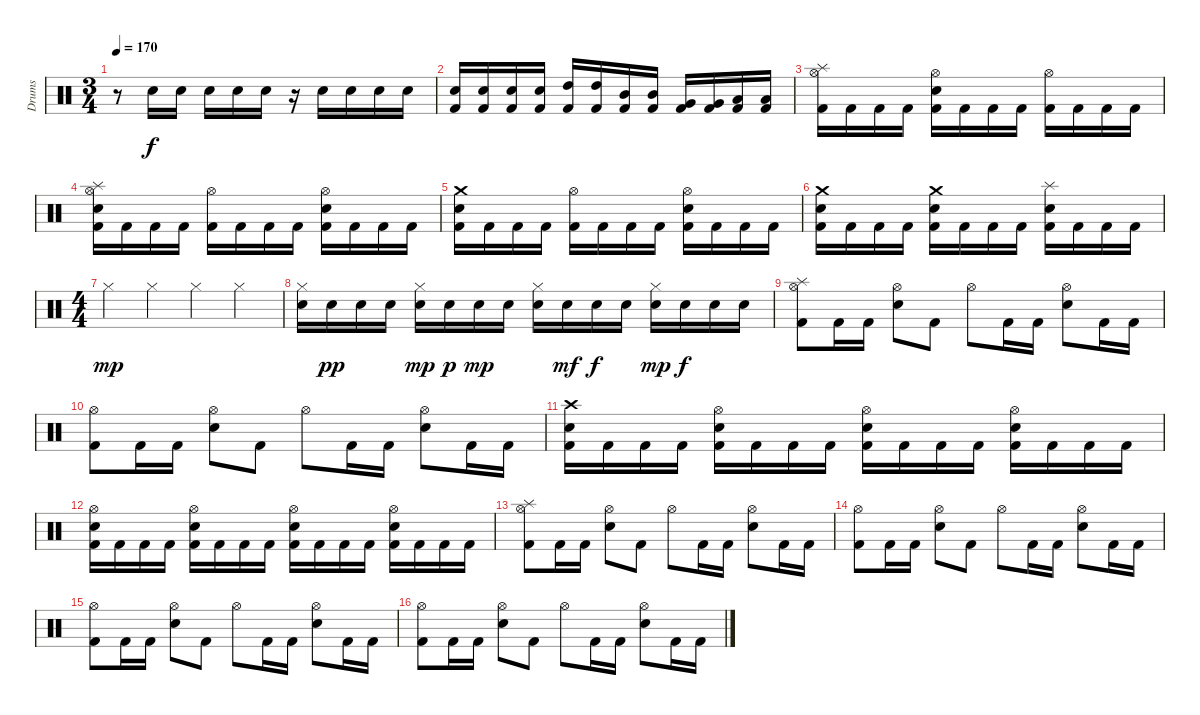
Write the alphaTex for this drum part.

\track ("Drums" "Drums") {instrument percussion}
\staff {score}
\articulation defaults
\ts (3 4)
\tempo 170
\clef neutral
\ks c
r.8{dy f} "Snare (hit) 2".16 "Snare (hit) 2".16 "Snare (hit) 2".16 "Snare (hit) 2".16 "Snare (hit) 2".16 r.16 "Snare (hit) 2".16 "Snare (hit) 2".16 "Snare (hit) 2".16 "Snare (hit) 2".16 |
("Kick (hit) 2" "Snare (hit) 2").16 ("Kick (hit) 2" "Snare (hit) 2").16 ("Kick (hit) 2" "Snare (hit) 2").16 ("Kick (hit) 2" "Snare (hit) 2").16 ("Kick (hit) 2" "High Tom (hit)").16 ("Kick (hit) 2" "High Tom (hit)").16 ("Kick (hit) 2" "Mid Tom (hit)").16 ("Kick (hit) 2" "Mid Tom (hit)").16 ("Kick (hit) 2" "Very Low Tom (hit)").16 ("Kick (hit) 2" "Very Low Tom (hit)").16 ("Kick (hit) 2" "Low Floor Tom (hit)").16 ("Kick (hit) 2" "Low Floor Tom (hit)").16 |
("Kick (hit) 2" "Hi-Hat (open)" "Splash (hit)").16 "Kick (hit) 2".16 "Kick (hit) 2".16 "Kick (hit) 2".16 ("Kick (hit) 2" "Snare (hit) 2" "Hi-Hat (open)").16 "Kick (hit) 2".16 "Kick (hit) 2".16 "Kick (hit) 2".16 ("Kick (hit) 2" "Hi-Hat (open)").16 "Kick (hit) 2".16 "Kick (hit) 2".16 "Kick (hit) 2".16 |
("Kick (hit) 2" "Snare (hit) 2" "Hi-Hat (open)" "Splash (hit)").16 "Kick (hit) 2".16 "Kick (hit) 2".16 "Kick (hit) 2".16 ("Kick (hit) 2" "Hi-Hat (open)").16 "Kick (hit) 2".16 "Kick (hit) 2".16 "Kick (hit) 2".16 ("Kick (hit) 2" "Snare (hit) 2" "Hi-Hat (open)").16 "Kick (hit) 2".16 "Kick (hit) 2".16 "Kick (hit) 2".16 |
("Kick (hit) 2" "Snare (hit) 2" "Crash medium (hit)").16 "Kick (hit) 2".16 "Kick (hit) 2".16 "Kick (hit) 2".16 ("Kick (hit) 2" "Hi-Hat (open)").16 "Kick (hit) 2".16 "Kick (hit) 2".16 "Kick (hit) 2".16 ("Kick (hit) 2" "Snare (hit) 2" "Hi-Hat (open)").16 "Kick (hit) 2".16 "Kick (hit) 2".16 "Kick (hit) 2".16 |
("Kick (hit) 2" "Snare (hit) 2" "Crash medium (hit)").16 "Kick (hit) 2".16 "Kick (hit) 2".16 "Kick (hit) 2".16 ("Kick (hit) 2" "Snare (hit) 2" "Crash medium (hit)").16 "Kick (hit) 2".16 "Kick (hit) 2".16 "Kick (hit) 2".16 ("Kick (hit) 2" "Snare (hit) 2" "Splash (hit)").16 "Kick (hit) 2".16 "Kick (hit) 2".16 "Kick (hit) 2".16 |
\ts (4 4)
\section ("" "")
"Hi-Hat (closed)".4{dy mp} "Hi-Hat (closed)".4 "Hi-Hat (closed)".4 "Hi-Hat (closed)".4 |
("Snare (hit) 2" "Hi-Hat (closed)").16 "Snare (hit) 2".16{dy pp} "Snare (hit) 2".16 "Snare (hit) 2".16 ("Snare (hit) 2" "Hi-Hat (closed)").16{dy mp} "Snare (hit) 2".16{dy p} "Snare (hit) 2".16{dy mp} "Snare (hit) 2".16 ("Snare (hit) 2" "Hi-Hat (closed)").16 "Snare (hit) 2".16{dy mf} "Snare (hit) 2".16{dy f} "Snare (hit) 2".16 ("Snare (hit) 2" "Hi-Hat (closed)").16{dy mp} "Snare (hit) 2".16{dy f} "Snare (hit) 2".16 "Snare (hit) 2".16 |
("Kick (hit) 2" "Hi-Hat (open)" "Splash (hit)").8 "Kick (hit) 2".16 "Kick (hit) 2".16 ("Snare (hit) 2" "Hi-Hat (open)").8 "Kick (hit) 2".8 "Hi-Hat (open)".8 "Kick (hit) 2".16 "Kick (hit) 2".16 ("Snare (hit) 2" "Hi-Hat (open)").8 "Kick (hit) 2".16 "Kick (hit) 2".16 |
("Kick (hit) 2" "Hi-Hat (open)").8 "Kick (hit) 2".16 "Kick (hit) 2".16 ("Snare (hit) 2" "Hi-Hat (open)").8 "Kick (hit) 2".8 "Hi-Hat (open)".8 "Kick (hit) 2".16 "Kick (hit) 2".16 ("Snare (hit) 2" "Hi-Hat (open)").8 "Kick (hit) 2".16 "Kick (hit) 2".16 |
("Kick (hit) 2" "Snare (hit) 2" "Crash high (hit)").16 "Kick (hit) 2".16 "Kick (hit) 2".16 "Kick (hit) 2".16 ("Kick (hit) 2" "Snare (hit) 2" "Hi-Hat (open)").16 "Kick (hit) 2".16 "Kick (hit) 2".16 "Kick (hit) 2".16 ("Kick (hit) 2" "Snare (hit) 2" "Hi-Hat (open)").16 "Kick (hit) 2".16 "Kick (hit) 2".16 "Kick (hit) 2".16 ("Kick (hit) 2" "Snare (hit) 2" "Hi-Hat (open)").16 "Kick (hit) 2".16 "Kick (hit) 2".16 "Kick (hit) 2".16 |
("Kick (hit) 2" "Snare (hit) 2" "Hi-Hat (open)").16 "Kick (hit) 2".16 "Kick (hit) 2".16 "Kick (hit) 2".16 ("Kick (hit) 2" "Snare (hit) 2" "Hi-Hat (open)").16 "Kick (hit) 2".16 "Kick (hit) 2".16 "Kick (hit) 2".16 ("Kick (hit) 2" "Snare (hit) 2" "Hi-Hat (open)").16 "Kick (hit) 2".16 "Kick (hit) 2".16 "Kick (hit) 2".16 ("Kick (hit) 2" "Snare (hit) 2" "Hi-Hat (open)").16 "Kick (hit) 2".16 "Kick (hit) 2".16 "Kick (hit) 2".16 |
("Kick (hit) 2" "Hi-Hat (open)" "Splash (hit)").8 "Kick (hit) 2".16 "Kick (hit) 2".16 ("Snare (hit) 2" "Hi-Hat (open)").8 "Kick (hit) 2".8 "Hi-Hat (open)".8 "Kick (hit) 2".16 "Kick (hit) 2".16 ("Snare (hit) 2" "Hi-Hat (open)").8 "Kick (hit) 2".16 "Kick (hit) 2".16 |
("Kick (hit) 2" "Hi-Hat (open)").8 "Kick (hit) 2".16 "Kick (hit) 2".16 ("Snare (hit) 2" "Hi-Hat (open)").8 "Kick (hit) 2".8 "Hi-Hat (open)".8 "Kick (hit) 2".16 "Kick (hit) 2".16 ("Snare (hit) 2" "Hi-Hat (open)").8 "Kick (hit) 2".16 "Kick (hit) 2".16 |
("Kick (hit) 2" "Hi-Hat (open)").8 "Kick (hit) 2".16 "Kick (hit) 2".16 ("Snare (hit) 2" "Hi-Hat (open)").8 "Kick (hit) 2".8 "Hi-Hat (open)".8 "Kick (hit) 2".16 "Kick (hit) 2".16 ("Snare (hit) 2" "Hi-Hat (open)").8 "Kick (hit) 2".16 "Kick (hit) 2".16 |
("Kick (hit) 2" "Hi-Hat (open)").8 "Kick (hit) 2".16 "Kick (hit) 2".16 ("Snare (hit) 2" "Hi-Hat (open)").8 "Kick (hit) 2".8 "Hi-Hat (open)".8 "Kick (hit) 2".16 "Kick (hit) 2".16 ("Snare (hit) 2" "Hi-Hat (open)").8 "Kick (hit) 2".16 "Kick (hit) 2".16
